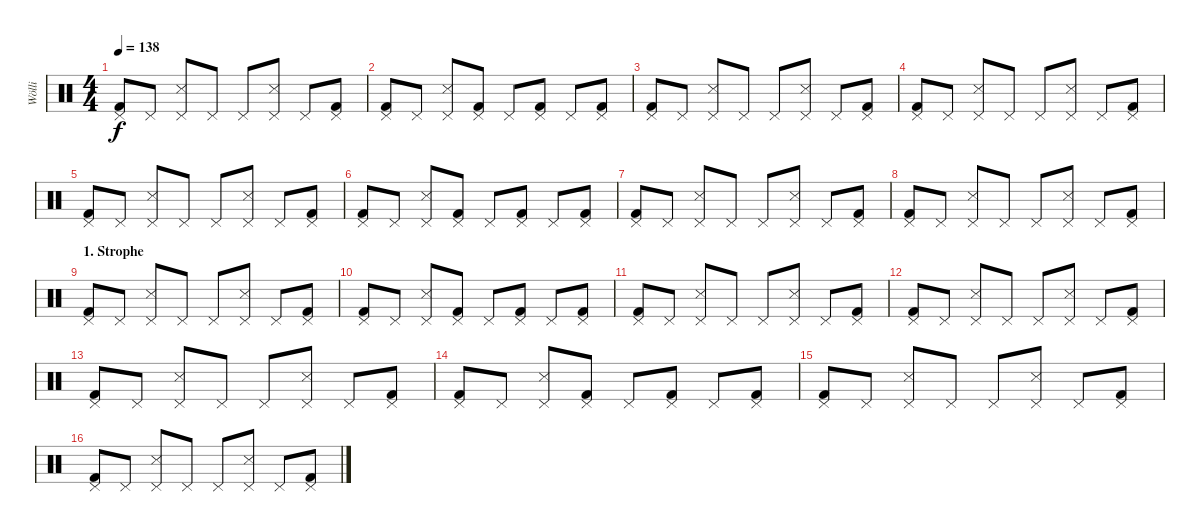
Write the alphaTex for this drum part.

\track ("Wölli" "Wölli") {instrument percussion}
\staff {score}
\articulation defaults
\ts (4 4)
\tempo 138
\clef neutral
\ks c
("Pedal Hi-Hat (hit)" "Kick (hit) 2").8{dy f} "Pedal Hi-Hat (hit)".8 ("Pedal Hi-Hat (hit)" "Snare (side stick) 3").8 "Pedal Hi-Hat (hit)".8 "Pedal Hi-Hat (hit)".8 ("Pedal Hi-Hat (hit)" "Snare (side stick) 3").8 "Pedal Hi-Hat (hit)".8 ("Pedal Hi-Hat (hit)" "Kick (hit) 2").8 |
("Pedal Hi-Hat (hit)" "Kick (hit) 2").8 "Pedal Hi-Hat (hit)".8 ("Pedal Hi-Hat (hit)" "Snare (side stick) 3").8 ("Pedal Hi-Hat (hit)" "Kick (hit) 2").8 "Pedal Hi-Hat (hit)".8 ("Pedal Hi-Hat (hit)" "Kick (hit) 2").8 "Pedal Hi-Hat (hit)".8 ("Pedal Hi-Hat (hit)" "Kick (hit) 2").8 |
("Pedal Hi-Hat (hit)" "Kick (hit) 2").8 "Pedal Hi-Hat (hit)".8 ("Pedal Hi-Hat (hit)" "Snare (side stick) 3").8 "Pedal Hi-Hat (hit)".8 "Pedal Hi-Hat (hit)".8 ("Pedal Hi-Hat (hit)" "Snare (side stick) 3").8 "Pedal Hi-Hat (hit)".8 ("Pedal Hi-Hat (hit)" "Kick (hit) 2").8 |
("Pedal Hi-Hat (hit)" "Kick (hit) 2").8 "Pedal Hi-Hat (hit)".8 ("Pedal Hi-Hat (hit)" "Snare (side stick) 3").8 "Pedal Hi-Hat (hit)".8 "Pedal Hi-Hat (hit)".8 ("Pedal Hi-Hat (hit)" "Snare (side stick) 3").8 "Pedal Hi-Hat (hit)".8 ("Pedal Hi-Hat (hit)" "Kick (hit) 2").8 |
("Pedal Hi-Hat (hit)" "Kick (hit) 2").8 "Pedal Hi-Hat (hit)".8 ("Pedal Hi-Hat (hit)" "Snare (side stick) 3").8 "Pedal Hi-Hat (hit)".8 "Pedal Hi-Hat (hit)".8 ("Pedal Hi-Hat (hit)" "Snare (side stick) 3").8 "Pedal Hi-Hat (hit)".8 ("Pedal Hi-Hat (hit)" "Kick (hit) 2").8 |
("Pedal Hi-Hat (hit)" "Kick (hit) 2").8 "Pedal Hi-Hat (hit)".8 ("Pedal Hi-Hat (hit)" "Snare (side stick) 3").8 ("Pedal Hi-Hat (hit)" "Kick (hit) 2").8 "Pedal Hi-Hat (hit)".8 ("Pedal Hi-Hat (hit)" "Kick (hit) 2").8 "Pedal Hi-Hat (hit)".8 ("Pedal Hi-Hat (hit)" "Kick (hit) 2").8 |
("Pedal Hi-Hat (hit)" "Kick (hit) 2").8 "Pedal Hi-Hat (hit)".8 ("Pedal Hi-Hat (hit)" "Snare (side stick) 3").8 "Pedal Hi-Hat (hit)".8 "Pedal Hi-Hat (hit)".8 ("Pedal Hi-Hat (hit)" "Snare (side stick) 3").8 "Pedal Hi-Hat (hit)".8 ("Pedal Hi-Hat (hit)" "Kick (hit) 2").8 |
("Pedal Hi-Hat (hit)" "Kick (hit) 2").8 "Pedal Hi-Hat (hit)".8 ("Pedal Hi-Hat (hit)" "Snare (side stick) 3").8 "Pedal Hi-Hat (hit)".8 "Pedal Hi-Hat (hit)".8 ("Pedal Hi-Hat (hit)" "Snare (side stick) 3").8 "Pedal Hi-Hat (hit)".8 ("Pedal Hi-Hat (hit)" "Kick (hit) 2").8 |
\section ("" "1. Strophe")
("Pedal Hi-Hat (hit)" "Kick (hit) 2").8 "Pedal Hi-Hat (hit)".8 ("Pedal Hi-Hat (hit)" "Snare (side stick) 3").8 "Pedal Hi-Hat (hit)".8 "Pedal Hi-Hat (hit)".8 ("Pedal Hi-Hat (hit)" "Snare (side stick) 3").8 "Pedal Hi-Hat (hit)".8 ("Pedal Hi-Hat (hit)" "Kick (hit) 2").8 |
("Pedal Hi-Hat (hit)" "Kick (hit) 2").8 "Pedal Hi-Hat (hit)".8 ("Pedal Hi-Hat (hit)" "Snare (side stick) 3").8 ("Pedal Hi-Hat (hit)" "Kick (hit) 2").8 "Pedal Hi-Hat (hit)".8 ("Pedal Hi-Hat (hit)" "Kick (hit) 2").8 "Pedal Hi-Hat (hit)".8 ("Pedal Hi-Hat (hit)" "Kick (hit) 2").8 |
("Pedal Hi-Hat (hit)" "Kick (hit) 2").8 "Pedal Hi-Hat (hit)".8 ("Pedal Hi-Hat (hit)" "Snare (side stick) 3").8 "Pedal Hi-Hat (hit)".8 "Pedal Hi-Hat (hit)".8 ("Pedal Hi-Hat (hit)" "Snare (side stick) 3").8 "Pedal Hi-Hat (hit)".8 ("Pedal Hi-Hat (hit)" "Kick (hit) 2").8 |
("Pedal Hi-Hat (hit)" "Kick (hit) 2").8 "Pedal Hi-Hat (hit)".8 ("Pedal Hi-Hat (hit)" "Snare (side stick) 3").8 "Pedal Hi-Hat (hit)".8 "Pedal Hi-Hat (hit)".8 ("Pedal Hi-Hat (hit)" "Snare (side stick) 3").8 "Pedal Hi-Hat (hit)".8 ("Pedal Hi-Hat (hit)" "Kick (hit) 2").8 |
("Pedal Hi-Hat (hit)" "Kick (hit) 2").8 "Pedal Hi-Hat (hit)".8 ("Pedal Hi-Hat (hit)" "Snare (side stick) 3").8 "Pedal Hi-Hat (hit)".8 "Pedal Hi-Hat (hit)".8 ("Pedal Hi-Hat (hit)" "Snare (side stick) 3").8 "Pedal Hi-Hat (hit)".8 ("Pedal Hi-Hat (hit)" "Kick (hit) 2").8 |
("Pedal Hi-Hat (hit)" "Kick (hit) 2").8 "Pedal Hi-Hat (hit)".8 ("Pedal Hi-Hat (hit)" "Snare (side stick) 3").8 ("Pedal Hi-Hat (hit)" "Kick (hit) 2").8 "Pedal Hi-Hat (hit)".8 ("Pedal Hi-Hat (hit)" "Kick (hit) 2").8 "Pedal Hi-Hat (hit)".8 ("Pedal Hi-Hat (hit)" "Kick (hit) 2").8 |
("Pedal Hi-Hat (hit)" "Kick (hit) 2").8 "Pedal Hi-Hat (hit)".8 ("Pedal Hi-Hat (hit)" "Snare (side stick) 3").8 "Pedal Hi-Hat (hit)".8 "Pedal Hi-Hat (hit)".8 ("Pedal Hi-Hat (hit)" "Snare (side stick) 3").8 "Pedal Hi-Hat (hit)".8 ("Pedal Hi-Hat (hit)" "Kick (hit) 2").8 |
("Pedal Hi-Hat (hit)" "Kick (hit) 2").8 "Pedal Hi-Hat (hit)".8 ("Pedal Hi-Hat (hit)" "Snare (side stick) 3").8 "Pedal Hi-Hat (hit)".8 "Pedal Hi-Hat (hit)".8 ("Pedal Hi-Hat (hit)" "Snare (side stick) 3").8 "Pedal Hi-Hat (hit)".8 ("Pedal Hi-Hat (hit)" "Kick (hit) 2").8
